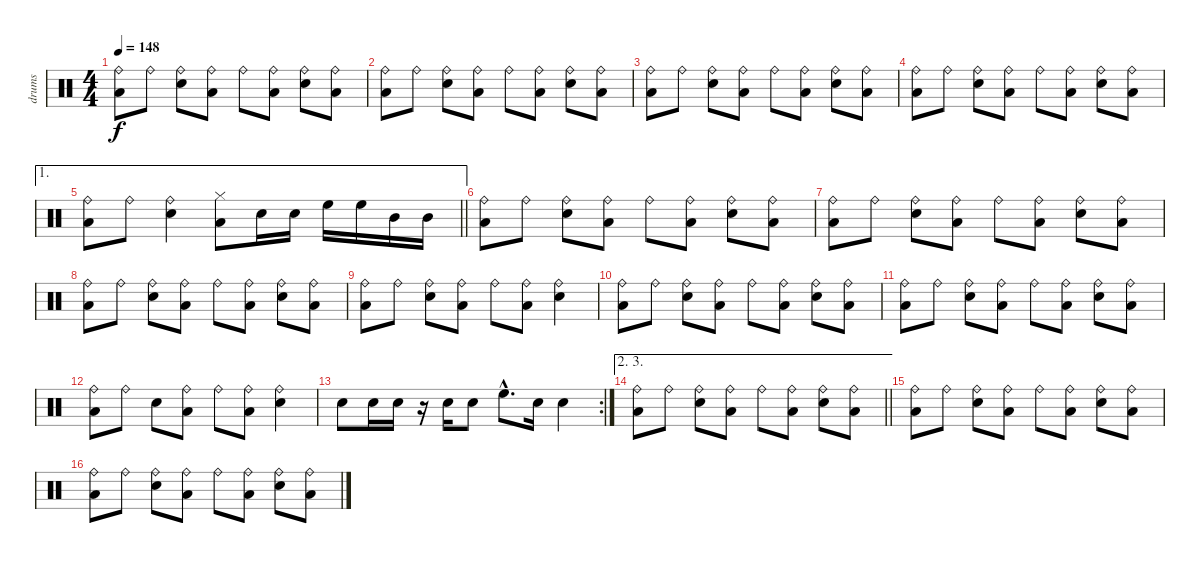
\track ("drums" "drums") {instrument percussion}
\staff {score}
\articulation defaults
\ts (4 4)
\tempo 148
\clef neutral
\ks c
("Ride (bell)" "Low Floor Tom (hit)").8{dy f} "Ride (bell)".8 ("Ride (bell)" "Electric Snare (hit)").8 ("Ride (bell)" "Low Floor Tom (hit)").8 "Ride (bell)".8 ("Ride (bell)" "Low Floor Tom (hit)").8 ("Ride (bell)" "Electric Snare (hit)").8 ("Ride (bell)" "Low Floor Tom (hit)").8 |
("Ride (bell)" "Low Floor Tom (hit)").8 "Ride (bell)".8 ("Ride (bell)" "Electric Snare (hit)").8 ("Ride (bell)" "Low Floor Tom (hit)").8 "Ride (bell)".8 ("Ride (bell)" "Low Floor Tom (hit)").8 ("Ride (bell)" "Electric Snare (hit)").8 ("Ride (bell)" "Low Floor Tom (hit)").8 |
("Ride (bell)" "Low Floor Tom (hit)").8 "Ride (bell)".8 ("Ride (bell)" "Electric Snare (hit)").8 ("Ride (bell)" "Low Floor Tom (hit)").8 "Ride (bell)".8 ("Ride (bell)" "Low Floor Tom (hit)").8 ("Ride (bell)" "Electric Snare (hit)").8 ("Ride (bell)" "Low Floor Tom (hit)").8 |
("Ride (bell)" "Low Floor Tom (hit)").8 "Ride (bell)".8 ("Ride (bell)" "Electric Snare (hit)").8 ("Ride (bell)" "Low Floor Tom (hit)").8 "Ride (bell)".8 ("Ride (bell)" "Low Floor Tom (hit)").8 ("Ride (bell)" "Electric Snare (hit)").8 ("Ride (bell)" "Low Floor Tom (hit)").8 |
\ae 1
\barLineRight lightlight
("Ride (bell)" "Low Floor Tom (hit)").8 "Ride (bell)".8 ("Ride (bell)" "Electric Snare (hit)").4 ("Hi-Hat (closed)" "Low Floor Tom (hit)").8 "Electric Snare (hit)".16 "Electric Snare (hit)".16 "High Floor Tom (hit)".16 "High Floor Tom (hit)".16 "Mid Tom (hit)".16 "Mid Tom (hit)".16 |
("Ride (bell)" "Low Floor Tom (hit)").8 "Ride (bell)".8 ("Ride (bell)" "Electric Snare (hit)").8 ("Ride (bell)" "Low Floor Tom (hit)").8 "Ride (bell)".8 ("Ride (bell)" "Low Floor Tom (hit)").8 ("Ride (bell)" "Electric Snare (hit)").8 ("Ride (bell)" "Low Floor Tom (hit)").8 |
("Ride (bell)" "Low Floor Tom (hit)").8 "Ride (bell)".8 ("Ride (bell)" "Electric Snare (hit)").8 ("Ride (bell)" "Low Floor Tom (hit)").8 "Ride (bell)".8 ("Ride (bell)" "Low Floor Tom (hit)").8 ("Ride (bell)" "Electric Snare (hit)").8 ("Ride (bell)" "Low Floor Tom (hit)").8 |
("Ride (bell)" "Low Floor Tom (hit)").8 "Ride (bell)".8 ("Ride (bell)" "Electric Snare (hit)").8 ("Ride (bell)" "Low Floor Tom (hit)").8 "Ride (bell)".8 ("Ride (bell)" "Low Floor Tom (hit)").8 ("Ride (bell)" "Electric Snare (hit)").8 ("Ride (bell)" "Low Floor Tom (hit)").8 |
("Ride (bell)" "Low Floor Tom (hit)").8 "Ride (bell)".8 ("Ride (bell)" "Electric Snare (hit)").8 ("Ride (bell)" "Low Floor Tom (hit)").8 "Ride (bell)".8 ("Ride (bell)" "Low Floor Tom (hit)").8 ("Ride (bell)" "Electric Snare (hit)").4 |
("Ride (bell)" "Low Floor Tom (hit)").8 "Ride (bell)".8 ("Ride (bell)" "Electric Snare (hit)").8 ("Ride (bell)" "Low Floor Tom (hit)").8 "Ride (bell)".8 ("Ride (bell)" "Low Floor Tom (hit)").8 ("Ride (bell)" "Electric Snare (hit)").8 ("Ride (bell)" "Low Floor Tom (hit)").8 |
("Ride (bell)" "Low Floor Tom (hit)").8 "Ride (bell)".8 ("Ride (bell)" "Electric Snare (hit)").8 ("Ride (bell)" "Low Floor Tom (hit)").8 "Ride (bell)".8 ("Ride (bell)" "Low Floor Tom (hit)").8 ("Ride (bell)" "Electric Snare (hit)").8 ("Ride (bell)" "Low Floor Tom (hit)").8 |
("Ride (bell)" "Low Floor Tom (hit)").8 "Ride (bell)".8 "Electric Snare (hit)".8 ("Ride (bell)" "Low Floor Tom (hit)").8 "Ride (bell)".8 ("Ride (bell)" "Low Floor Tom (hit)").8 ("Ride (bell)" "Electric Snare (hit)").4 |
\rc 2 "Electric Snare (hit)".8 "Electric Snare (hit)".16 "Electric Snare (hit)".16
r.16 "Electric Snare (hit)".16 "Electric Snare (hit)".8 "High Floor Tom (hit)"{hac}.8{d} "Electric Snare (hit)".16 "Electric Snare (hit)".4 |
\ae (2 3)
\barLineRight lightlight
("Ride (bell)" "Low Floor Tom (hit)").8 "Ride (bell)".8 ("Ride (bell)" "Electric Snare (hit)").8 ("Ride (bell)" "Low Floor Tom (hit)").8 "Ride (bell)".8 ("Ride (bell)" "Low Floor Tom (hit)").8 ("Ride (bell)" "Electric Snare (hit)").8 ("Ride (bell)" "Low Floor Tom (hit)").8 |
("Ride (bell)" "Low Floor Tom (hit)").8 "Ride (bell)".8 ("Ride (bell)" "Electric Snare (hit)").8 ("Ride (bell)" "Low Floor Tom (hit)").8 "Ride (bell)".8 ("Ride (bell)" "Low Floor Tom (hit)").8 ("Ride (bell)" "Electric Snare (hit)").8 ("Ride (bell)" "Low Floor Tom (hit)").8 |
("Ride (bell)" "Low Floor Tom (hit)").8 "Ride (bell)".8 ("Ride (bell)" "Electric Snare (hit)").8 ("Ride (bell)" "Low Floor Tom (hit)").8 "Ride (bell)".8 ("Ride (bell)" "Low Floor Tom (hit)").8 ("Ride (bell)" "Electric Snare (hit)").8 ("Ride (bell)" "Low Floor Tom (hit)").8
